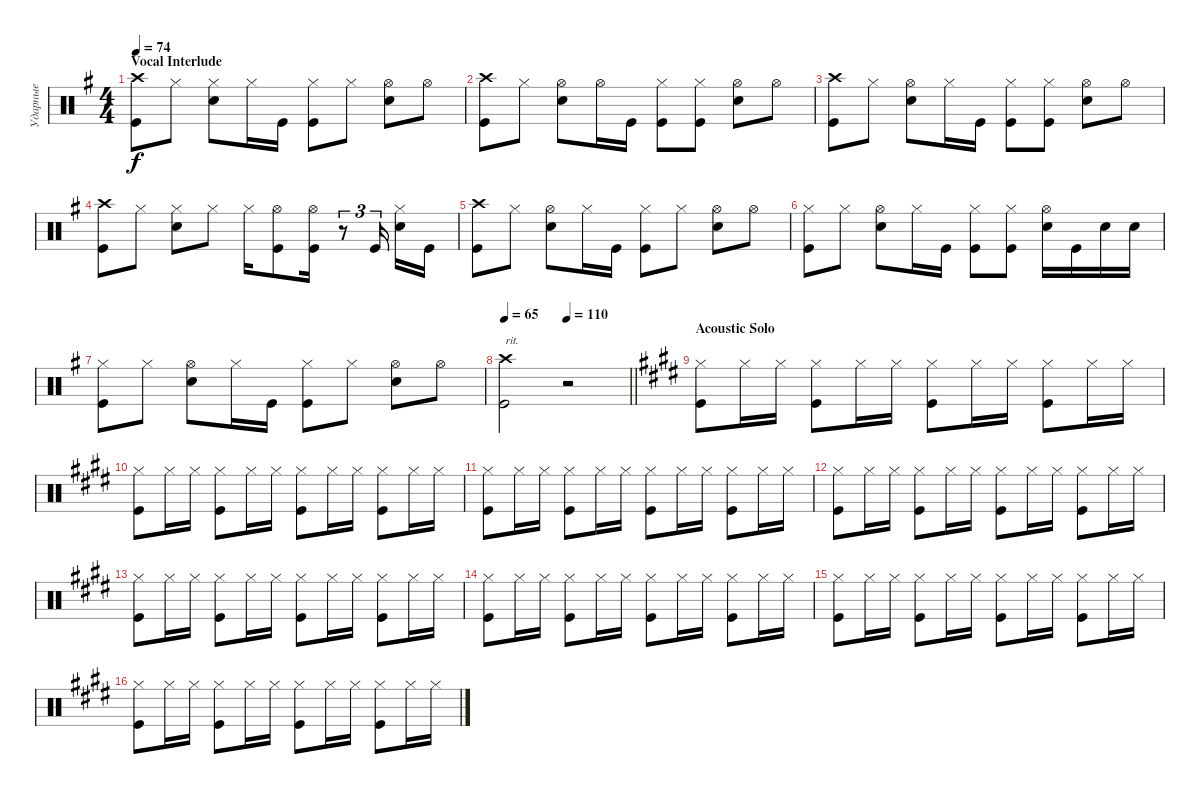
\track ("Ударные" "Ударные") {instrument percussion}
\staff {score}
\articulation defaults
\ts (4 4)
\section ("" "Vocal Interlude")
\tempo 74
\clef neutral
\ks eminor
("Kick (hit)" "Crash high (hit)").8{dy f} "Hi-Hat (closed)".8 ("Hi-Hat (closed)" "Snare (hit) 2").8 "Hi-Hat (closed)".16 "Kick (hit)".16 ("Kick (hit)" "Hi-Hat (closed)").8 "Hi-Hat (closed)".8 ("Hi-Hat (open)" "Snare (hit) 2").8 "Hi-Hat (open)".8 |
("Kick (hit)" "Crash high (hit)").8 "Hi-Hat (closed)".8 ("Snare (hit) 2" "Hi-Hat (open)").8 "Hi-Hat (open)".16 "Kick (hit)".16 ("Kick (hit)" "Hi-Hat (closed)").8 ("Kick (hit)" "Hi-Hat (closed)").8 ("Hi-Hat (open)" "Snare (hit) 2").8 "Hi-Hat (open)".8 |
("Kick (hit)" "Crash high (hit)").8 "Hi-Hat (closed)".8 ("Snare (hit) 2" "Hi-Hat (open)").8 "Hi-Hat (closed)".16 "Kick (hit)".16 ("Kick (hit)" "Hi-Hat (closed)").8 ("Kick (hit)" "Hi-Hat (closed)").8 ("Hi-Hat (open)" "Snare (hit) 2").8 "Hi-Hat (open)".8 |
("Kick (hit)" "Crash high (hit)").8 "Hi-Hat (closed)".8 ("Hi-Hat (closed)" "Snare (hit) 2").8 "Hi-Hat (closed)".8 "Hi-Hat (closed)".16 ("Kick (hit)" "Hi-Hat (open)").8 ("Kick (hit)" "Hi-Hat (open)").16 r.8{tu (3 2)} "Kick (hit)".16{tu (3 2) beam splitsecondary} ("Hi-Hat (closed)" "Snare (hit) 2").16 "Kick (hit)".16 |
("Kick (hit)" "Crash high (hit)").8 "Hi-Hat (closed)".8 ("Snare (hit) 2" "Hi-Hat (open)").8 "Hi-Hat (closed)".16 "Kick (hit)".16 ("Kick (hit)" "Hi-Hat (closed)").8 "Hi-Hat (closed)".8 ("Hi-Hat (open)" "Snare (hit) 2").8 "Hi-Hat (open)".8 |
("Kick (hit)" "Hi-Hat (closed)").8 "Hi-Hat (closed)".8 ("Snare (hit) 2" "Hi-Hat (open)").8 "Hi-Hat (closed)".16 "Kick (hit)".16 ("Kick (hit)" "Hi-Hat (closed)").8 ("Kick (hit)" "Hi-Hat (closed)").8 ("Hi-Hat (open)" "Snare (hit) 2").16 "Kick (hit)".16 "Snare (hit) 2".16 "Snare (hit) 2".16 |
("Kick (hit)" "Hi-Hat (closed)").8 "Hi-Hat (closed)".8 ("Hi-Hat (open)" "Snare (hit) 2").8 "Hi-Hat (closed)".16 "Kick (hit)".16 ("Kick (hit)" "Hi-Hat (closed)").8 "Hi-Hat (closed)".8 ("Hi-Hat (open)" "Snare (hit) 2").8 "Hi-Hat (open)".8 |
\tempo 65
\tempo (110 0.5)
\barLineRight lightlight
("Kick (hit)" "Crash high (hit)").2{txt "rit."} r.2 |
\section ("" "Acoustic Solo")
\ks c#minor
("Kick (hit)" "Hi-Hat (closed)").8 "Hi-Hat (closed)".16 "Hi-Hat (closed)".16 ("Kick (hit)" "Hi-Hat (closed)").8 "Hi-Hat (closed)".16 "Hi-Hat (closed)".16 ("Hi-Hat (closed)" "Kick (hit)").8 "Hi-Hat (closed)".16 "Hi-Hat (closed)".16 ("Kick (hit)" "Hi-Hat (closed)").8 "Hi-Hat (closed)".16 "Hi-Hat (closed)".16 |
("Kick (hit)" "Hi-Hat (closed)").8 "Hi-Hat (closed)".16 "Hi-Hat (closed)".16 ("Kick (hit)" "Hi-Hat (closed)").8 "Hi-Hat (closed)".16 "Hi-Hat (closed)".16 ("Hi-Hat (closed)" "Kick (hit)").8 "Hi-Hat (closed)".16 "Hi-Hat (closed)".16 ("Kick (hit)" "Hi-Hat (closed)").8 "Hi-Hat (closed)".16 "Hi-Hat (closed)".16 |
("Kick (hit)" "Hi-Hat (closed)").8 "Hi-Hat (closed)".16 "Hi-Hat (closed)".16 ("Kick (hit)" "Hi-Hat (closed)").8 "Hi-Hat (closed)".16 "Hi-Hat (closed)".16 ("Hi-Hat (closed)" "Kick (hit)").8 "Hi-Hat (closed)".16 "Hi-Hat (closed)".16 ("Kick (hit)" "Hi-Hat (closed)").8 "Hi-Hat (closed)".16 "Hi-Hat (closed)".16 |
("Kick (hit)" "Hi-Hat (closed)").8 "Hi-Hat (closed)".16 "Hi-Hat (closed)".16 ("Kick (hit)" "Hi-Hat (closed)").8 "Hi-Hat (closed)".16 "Hi-Hat (closed)".16 ("Hi-Hat (closed)" "Kick (hit)").8 "Hi-Hat (closed)".16 "Hi-Hat (closed)".16 ("Kick (hit)" "Hi-Hat (closed)").8 "Hi-Hat (closed)".16 "Hi-Hat (closed)".16 |
("Kick (hit)" "Hi-Hat (closed)").8 "Hi-Hat (closed)".16 "Hi-Hat (closed)".16 ("Kick (hit)" "Hi-Hat (closed)").8 "Hi-Hat (closed)".16 "Hi-Hat (closed)".16 ("Hi-Hat (closed)" "Kick (hit)").8 "Hi-Hat (closed)".16 "Hi-Hat (closed)".16 ("Kick (hit)" "Hi-Hat (closed)").8 "Hi-Hat (closed)".16 "Hi-Hat (closed)".16 |
("Kick (hit)" "Hi-Hat (closed)").8 "Hi-Hat (closed)".16 "Hi-Hat (closed)".16 ("Kick (hit)" "Hi-Hat (closed)").8 "Hi-Hat (closed)".16 "Hi-Hat (closed)".16 ("Hi-Hat (closed)" "Kick (hit)").8 "Hi-Hat (closed)".16 "Hi-Hat (closed)".16 ("Kick (hit)" "Hi-Hat (closed)").8 "Hi-Hat (closed)".16 "Hi-Hat (closed)".16 |
("Kick (hit)" "Hi-Hat (closed)").8 "Hi-Hat (closed)".16 "Hi-Hat (closed)".16 ("Kick (hit)" "Hi-Hat (closed)").8 "Hi-Hat (closed)".16 "Hi-Hat (closed)".16 ("Hi-Hat (closed)" "Kick (hit)").8 "Hi-Hat (closed)".16 "Hi-Hat (closed)".16 ("Kick (hit)" "Hi-Hat (closed)").8 "Hi-Hat (closed)".16 "Hi-Hat (closed)".16 |
("Kick (hit)" "Hi-Hat (closed)").8 "Hi-Hat (closed)".16 "Hi-Hat (closed)".16 ("Kick (hit)" "Hi-Hat (closed)").8 "Hi-Hat (closed)".16 "Hi-Hat (closed)".16 ("Hi-Hat (closed)" "Kick (hit)").8 "Hi-Hat (closed)".16 "Hi-Hat (closed)".16 ("Kick (hit)" "Hi-Hat (closed)").8 "Hi-Hat (closed)".16 "Hi-Hat (closed)".16
